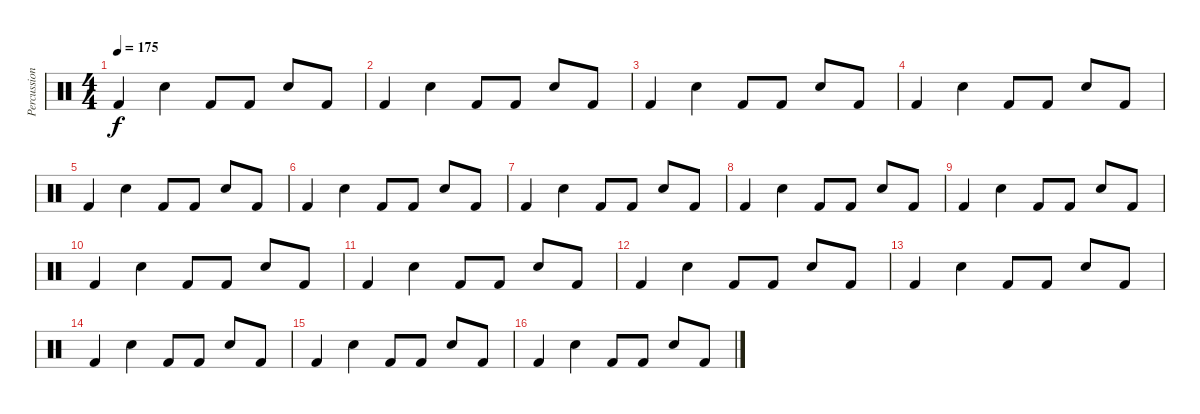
\track ("Percussion" "Percussion") {instrument percussion}
\staff {score}
\articulation defaults
\ts (4 4)
\tempo 175
\clef neutral
\ks c "Kick (hit) 2".4{dy f} "Electric Snare (hit)".4 "Kick (hit) 2".8 "Kick (hit) 2".8 "Electric Snare (hit)".8 "Kick (hit) 2".8
|
"Kick (hit) 2".4 "Electric Snare (hit)".4 "Kick (hit) 2".8 "Kick (hit) 2".8 "Electric Snare (hit)".8 "Kick (hit) 2".8 |
"Kick (hit) 2".4 "Electric Snare (hit)".4 "Kick (hit) 2".8 "Kick (hit) 2".8 "Electric Snare (hit)".8 "Kick (hit) 2".8 |
"Kick (hit) 2".4 "Electric Snare (hit)".4 "Kick (hit) 2".8 "Kick (hit) 2".8 "Electric Snare (hit)".8 "Kick (hit) 2".8 |
"Kick (hit) 2".4 "Electric Snare (hit)".4 "Kick (hit) 2".8 "Kick (hit) 2".8 "Electric Snare (hit)".8 "Kick (hit) 2".8 |
"Kick (hit) 2".4 "Electric Snare (hit)".4 "Kick (hit) 2".8 "Kick (hit) 2".8 "Electric Snare (hit)".8 "Kick (hit) 2".8 |
"Kick (hit) 2".4 "Electric Snare (hit)".4 "Kick (hit) 2".8 "Kick (hit) 2".8 "Electric Snare (hit)".8 "Kick (hit) 2".8 |
"Kick (hit) 2".4 "Electric Snare (hit)".4 "Kick (hit) 2".8 "Kick (hit) 2".8 "Electric Snare (hit)".8 "Kick (hit) 2".8 |
"Kick (hit) 2".4 "Electric Snare (hit)".4 "Kick (hit) 2".8 "Kick (hit) 2".8 "Electric Snare (hit)".8 "Kick (hit) 2".8 |
"Kick (hit) 2".4 "Electric Snare (hit)".4 "Kick (hit) 2".8 "Kick (hit) 2".8 "Electric Snare (hit)".8 "Kick (hit) 2".8 |
"Kick (hit) 2".4 "Electric Snare (hit)".4 "Kick (hit) 2".8 "Kick (hit) 2".8 "Electric Snare (hit)".8 "Kick (hit) 2".8 |
"Kick (hit) 2".4 "Electric Snare (hit)".4 "Kick (hit) 2".8 "Kick (hit) 2".8 "Electric Snare (hit)".8 "Kick (hit) 2".8 |
"Kick (hit) 2".4 "Electric Snare (hit)".4 "Kick (hit) 2".8 "Kick (hit) 2".8 "Electric Snare (hit)".8 "Kick (hit) 2".8 |
"Kick (hit) 2".4 "Electric Snare (hit)".4 "Kick (hit) 2".8 "Kick (hit) 2".8 "Electric Snare (hit)".8 "Kick (hit) 2".8 |
"Kick (hit) 2".4 "Electric Snare (hit)".4 "Kick (hit) 2".8 "Kick (hit) 2".8 "Electric Snare (hit)".8 "Kick (hit) 2".8 |
"Kick (hit) 2".4 "Electric Snare (hit)".4 "Kick (hit) 2".8 "Kick (hit) 2".8 "Electric Snare (hit)".8 "Kick (hit) 2".8
